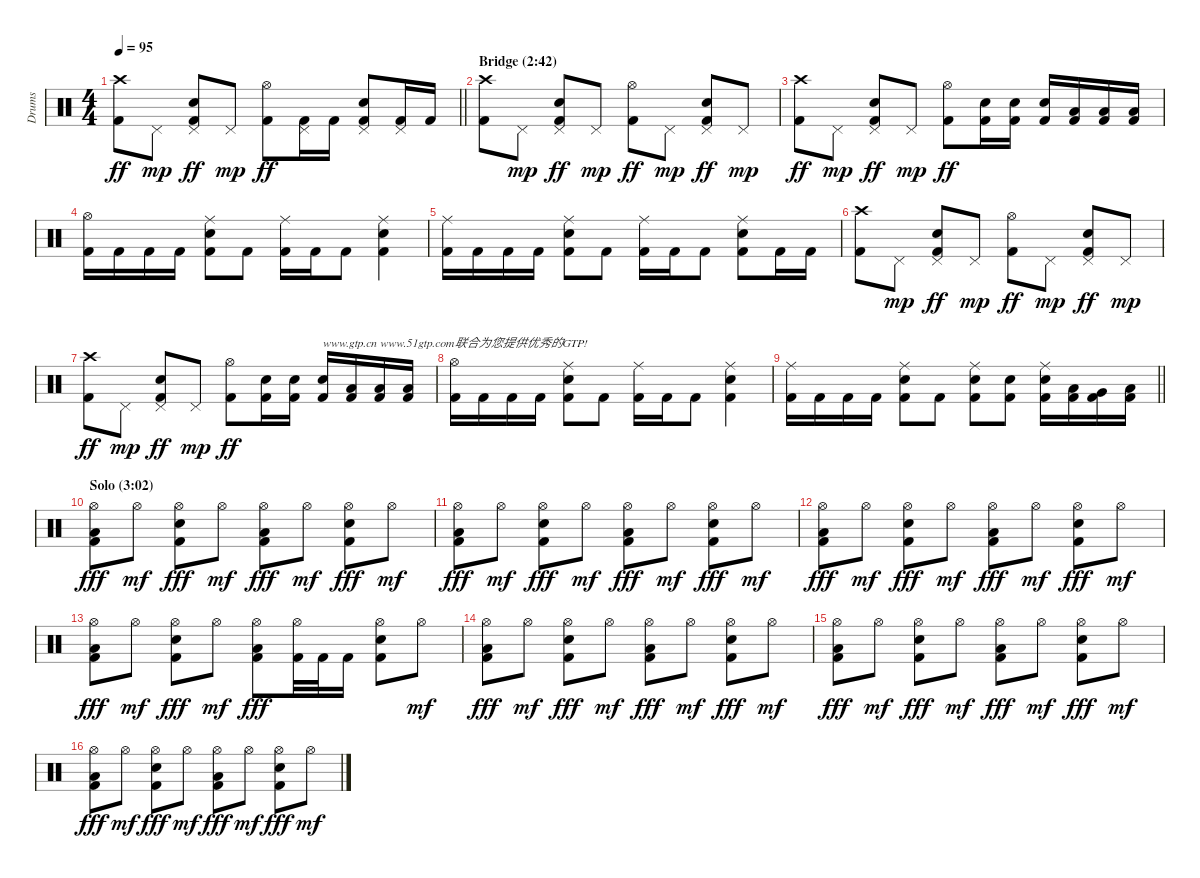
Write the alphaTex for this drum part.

\track ("Drums" "Drums") {instrument percussion}
\staff {score}
\articulation defaults
\ts (4 4)
\tempo 95
\clef neutral
\barLineRight lightlight
\ks c
("Crash high (hit)" "Kick (hit) 2").8{dy ff} "Pedal Hi-Hat (hit)".8{dy mp} ("Pedal Hi-Hat (hit)" "Snare (hit) 2" "Kick (hit) 2").8{dy ff} "Pedal Hi-Hat (hit)".8{dy mp} ("Hi-Hat (open)" "Kick (hit) 2").8{dy ff} ("Pedal Hi-Hat (hit)" "Kick (hit) 2").16 "Kick (hit) 2".16 ("Pedal Hi-Hat (hit)" "Snare (hit) 2" "Kick (hit) 2").8 ("Pedal Hi-Hat (hit)" "Kick (hit) 2").16 "Kick (hit) 2".16 |
\section ("" "Bridge (2:42)")
("Crash high (hit)" "Kick (hit) 2").8 "Pedal Hi-Hat (hit)".8{dy mp} ("Pedal Hi-Hat (hit)" "Snare (hit) 2" "Kick (hit) 2").8{dy ff} "Pedal Hi-Hat (hit)".8{dy mp} ("Hi-Hat (open)" "Kick (hit) 2").8{dy ff} "Pedal Hi-Hat (hit)".8{dy mp} ("Pedal Hi-Hat (hit)" "Snare (hit) 2" "Kick (hit) 2").8{dy ff} "Pedal Hi-Hat (hit)".8{dy mp} |
("Crash high (hit)" "Kick (hit) 2").8{dy ff} "Pedal Hi-Hat (hit)".8{dy mp} ("Pedal Hi-Hat (hit)" "Snare (hit) 2" "Kick (hit) 2").8{dy ff} "Pedal Hi-Hat (hit)".8{dy mp} ("Hi-Hat (open)" "Kick (hit) 2").8{dy ff} ("Snare (hit) 2" "Kick (hit) 2").16 ("Snare (hit) 2" "Kick (hit) 2").16 ("Snare (hit) 2" "Kick (hit) 2").16 ("Low Floor Tom (hit)" "Kick (hit) 2").16 ("Low Floor Tom (hit)" "Kick (hit) 2").16 ("Low Floor Tom (hit)" "Kick (hit) 2").16 |
("Hi-Hat (open)" "Kick (hit) 2").16 "Kick (hit) 2".16 "Kick (hit) 2".16 "Kick (hit) 2".16 ("Ride (middle)" "Snare (hit) 2" "Kick (hit) 2").8 "Kick (hit) 2".8 ("Ride (middle)" "Kick (hit) 2").16 "Kick (hit) 2".16 "Kick (hit) 2".8 ("Ride (middle)" "Snare (hit) 2" "Kick (hit) 2").4 |
("Ride (middle)" "Kick (hit) 2").16 "Kick (hit) 2".16 "Kick (hit) 2".16 "Kick (hit) 2".16 ("Ride (middle)" "Snare (hit) 2" "Kick (hit) 2").8 "Kick (hit) 2".8 ("Ride (middle)" "Kick (hit) 2").16 "Kick (hit) 2".16 "Kick (hit) 2".8 ("Ride (middle)" "Snare (hit) 2" "Kick (hit) 2").8 "Kick (hit) 2".16 "Kick (hit) 2".16 |
("Crash high (hit)" "Kick (hit) 2").8 "Pedal Hi-Hat (hit)".8{dy mp} ("Pedal Hi-Hat (hit)" "Snare (hit) 2" "Kick (hit) 2").8{dy ff} "Pedal Hi-Hat (hit)".8{dy mp} ("Hi-Hat (open)" "Kick (hit) 2").8{dy ff} "Pedal Hi-Hat (hit)".8{dy mp} ("Pedal Hi-Hat (hit)" "Snare (hit) 2" "Kick (hit) 2").8{dy ff} "Pedal Hi-Hat (hit)".8{dy mp} |
("Crash high (hit)" "Kick (hit) 2").8{dy ff} "Pedal Hi-Hat (hit)".8{dy mp} ("Pedal Hi-Hat (hit)" "Snare (hit) 2" "Kick (hit) 2").8{dy ff} "Pedal Hi-Hat (hit)".8{dy mp} ("Hi-Hat (open)" "Kick (hit) 2").8{dy ff} ("Snare (hit) 2" "Kick (hit) 2").16 ("Snare (hit) 2" "Kick (hit) 2").16 ("Snare (hit) 2" "Kick (hit) 2").16{txt "www.gtp.cn www.51gtp.com联合为您提供优秀的GTP!"} ("Low Floor Tom (hit)" "Kick (hit) 2").16 ("Low Floor Tom (hit)" "Kick (hit) 2").16 ("Low Floor Tom (hit)" "Kick (hit) 2").16 |
("Hi-Hat (open)" "Kick (hit) 2").16 "Kick (hit) 2".16 "Kick (hit) 2".16 "Kick (hit) 2".16 ("Ride (middle)" "Snare (hit) 2" "Kick (hit) 2").8 "Kick (hit) 2".8 ("Ride (middle)" "Kick (hit) 2").16 "Kick (hit) 2".16 "Kick (hit) 2".8 ("Ride (middle)" "Snare (hit) 2" "Kick (hit) 2").4 |
\barLineRight lightlight
("Ride (middle)" "Kick (hit) 2").16 "Kick (hit) 2".16 "Kick (hit) 2".16 "Kick (hit) 2".16 ("Ride (middle)" "Snare (hit) 2" "Kick (hit) 2").8 "Kick (hit) 2".8 ("Ride (middle)" "Snare (hit) 2" "Kick (hit) 2").8 ("Snare (hit) 2" "Kick (hit) 2").8 ("Ride (middle)" "Snare (hit) 2" "Kick (hit) 2").16 ("Low Tom (hit)" "Kick (hit) 2").16 ("Very Low Tom (hit)" "Kick (hit) 2").16 ("Low Floor Tom (hit)" "Kick (hit) 2").16 |
\section ("" "Solo (3:02)")
("Hi-Hat (open)" "Low Floor Tom (hit)" "Kick (hit) 2").8{dy fff} "Hi-Hat (open)".8{dy mf} ("Hi-Hat (open)" "Snare (hit) 2" "Kick (hit) 2").8{dy fff} "Hi-Hat (open)".8{dy mf} ("Hi-Hat (open)" "Low Floor Tom (hit)" "Kick (hit) 2").8{dy fff} "Hi-Hat (open)".8{dy mf} ("Hi-Hat (open)" "Snare (hit) 2" "Kick (hit) 2").8{dy fff} "Hi-Hat (open)".8{dy mf} |
("Hi-Hat (open)" "Low Floor Tom (hit)" "Kick (hit) 2").8{dy fff} "Hi-Hat (open)".8{dy mf} ("Hi-Hat (open)" "Snare (hit) 2" "Kick (hit) 2").8{dy fff} "Hi-Hat (open)".8{dy mf} ("Hi-Hat (open)" "Low Floor Tom (hit)" "Kick (hit) 2").8{dy fff} "Hi-Hat (open)".8{dy mf} ("Hi-Hat (open)" "Snare (hit) 2" "Kick (hit) 2").8{dy fff} "Hi-Hat (open)".8{dy mf} |
("Hi-Hat (open)" "Low Floor Tom (hit)" "Kick (hit) 2").8{dy fff} "Hi-Hat (open)".8{dy mf} ("Hi-Hat (open)" "Snare (hit) 2" "Kick (hit) 2").8{dy fff} "Hi-Hat (open)".8{dy mf} ("Hi-Hat (open)" "Low Floor Tom (hit)" "Kick (hit) 2").8{dy fff} "Hi-Hat (open)".8{dy mf} ("Hi-Hat (open)" "Snare (hit) 2" "Kick (hit) 2").8{dy fff} "Hi-Hat (open)".8{dy mf} |
("Hi-Hat (open)" "Low Floor Tom (hit)" "Kick (hit) 2").8{dy fff} "Hi-Hat (open)".8{dy mf} ("Hi-Hat (open)" "Snare (hit) 2" "Kick (hit) 2").8{dy fff} "Hi-Hat (open)".8{dy mf} ("Hi-Hat (open)" "Low Floor Tom (hit)" "Kick (hit) 2").8{dy fff} ("Hi-Hat (open)" "Kick (hit) 2").32 "Kick (hit) 2".32 "Kick (hit) 2".16 ("Hi-Hat (open)" "Snare (hit) 2" "Kick (hit) 2").8 "Hi-Hat (open)".8{dy mf} |
("Hi-Hat (open)" "Low Floor Tom (hit)" "Kick (hit) 2").8{dy fff} "Hi-Hat (open)".8{dy mf} ("Hi-Hat (open)" "Snare (hit) 2" "Kick (hit) 2").8{dy fff} "Hi-Hat (open)".8{dy mf} ("Hi-Hat (open)" "Low Floor Tom (hit)" "Kick (hit) 2").8{dy fff} "Hi-Hat (open)".8{dy mf} ("Hi-Hat (open)" "Snare (hit) 2" "Kick (hit) 2").8{dy fff} "Hi-Hat (open)".8{dy mf} |
("Hi-Hat (open)" "Low Floor Tom (hit)" "Kick (hit) 2").8{dy fff} "Hi-Hat (open)".8{dy mf} ("Hi-Hat (open)" "Snare (hit) 2" "Kick (hit) 2").8{dy fff} "Hi-Hat (open)".8{dy mf} ("Hi-Hat (open)" "Low Floor Tom (hit)" "Kick (hit) 2").8{dy fff} "Hi-Hat (open)".8{dy mf} ("Hi-Hat (open)" "Snare (hit) 2" "Kick (hit) 2").8{dy fff} "Hi-Hat (open)".8{dy mf} |
("Hi-Hat (open)" "Low Floor Tom (hit)" "Kick (hit) 2").8{dy fff} "Hi-Hat (open)".8{dy mf} ("Hi-Hat (open)" "Snare (hit) 2" "Kick (hit) 2").8{dy fff} "Hi-Hat (open)".8{dy mf} ("Hi-Hat (open)" "Low Floor Tom (hit)" "Kick (hit) 2").8{dy fff} "Hi-Hat (open)".8{dy mf} ("Hi-Hat (open)" "Snare (hit) 2" "Kick (hit) 2").8{dy fff} "Hi-Hat (open)".8{dy mf}
